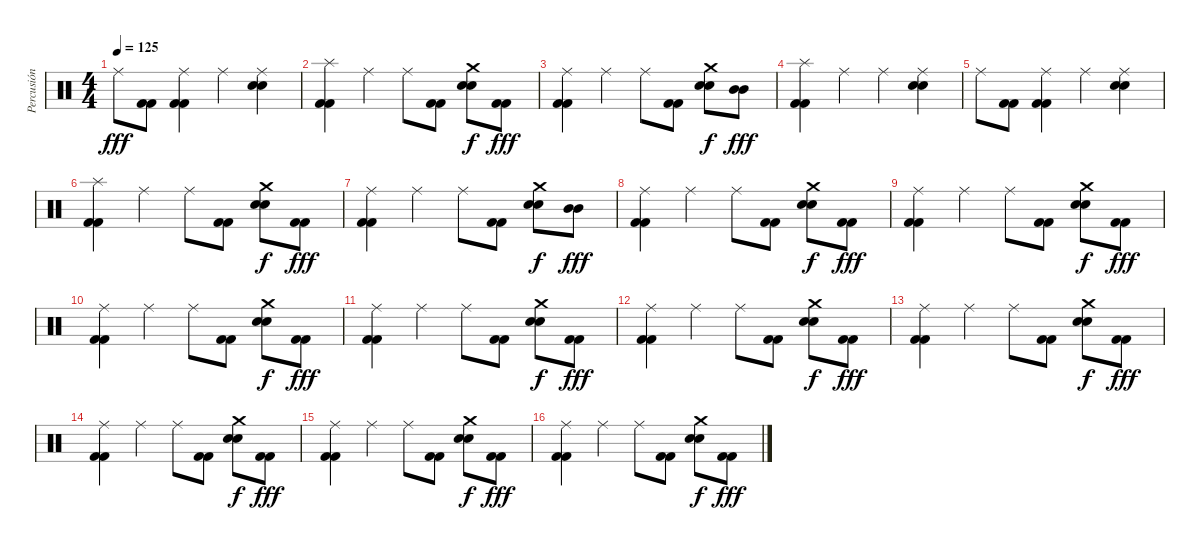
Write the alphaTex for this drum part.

\track ("Percusión" "Percusión") {instrument percussion}
\staff {score}
\articulation defaults
\ts (4 4)
\tempo 125
\clef neutral
\ks c "Ride (middle)".8{dy fff}
("Kick (hit) 2" "Kick (hit) 2").8 ("Ride (middle)" "Kick (hit) 2" "Kick (hit) 2").4 "Ride (middle)".4 ("Ride (middle)" "Electric Snare (hit)" "Electric Snare (hit)").4 |
("Splash (hit)" "Kick (hit) 2" "Kick (hit) 2").4 "Ride (middle)".4 "Ride (middle)".8 ("Kick (hit) 2" "Kick (hit) 2").8 ("Crash medium (hit)" "Electric Snare (hit)" "Electric Snare (hit)").8{dy f} ("Kick (hit) 2" "Kick (hit) 2").8{dy fff} |
("Ride (middle)" "Kick (hit) 2" "Kick (hit) 2").4 "Ride (middle)".4 "Ride (middle)".8 ("Kick (hit) 2" "Kick (hit) 2").8 ("Crash medium (hit)" "Electric Snare (hit)" "Electric Snare (hit)").8{dy f} ("Mid Tom (hit)" "Mid Tom (hit)").8{dy fff} |
("Splash (hit)" "Kick (hit) 2" "Kick (hit) 2").4 "Ride (middle)".4 "Ride (middle)".4 ("Ride (middle)" "Electric Snare (hit)" "Electric Snare (hit)").4 |
"Ride (middle)".8 ("Kick (hit) 2" "Kick (hit) 2").8 ("Ride (middle)" "Kick (hit) 2" "Kick (hit) 2").4 "Ride (middle)".4 ("Ride (middle)" "Electric Snare (hit)" "Electric Snare (hit)").4 |
("Splash (hit)" "Kick (hit) 2" "Kick (hit) 2").4 "Ride (middle)".4 "Ride (middle)".8 ("Kick (hit) 2" "Kick (hit) 2").8 ("Crash medium (hit)" "Electric Snare (hit)" "Electric Snare (hit)").8{dy f} ("Kick (hit) 2" "Kick (hit) 2").8{dy fff} |
("Ride (middle)" "Kick (hit) 2" "Kick (hit) 2").4 "Ride (middle)".4 "Ride (middle)".8 ("Kick (hit) 2" "Kick (hit) 2").8 ("Crash medium (hit)" "Electric Snare (hit)" "Electric Snare (hit)").8{dy f} ("Mid Tom (hit)" "Mid Tom (hit)").8{dy fff} |
("Ride (middle)" "Kick (hit) 2" "Kick (hit) 2").4 "Ride (middle)".4 "Ride (middle)".8 ("Kick (hit) 2" "Kick (hit) 2").8 ("Crash medium (hit)" "Electric Snare (hit)" "Electric Snare (hit)").8{dy f} ("Kick (hit) 2" "Kick (hit) 2").8{dy fff} |
("Ride (middle)" "Kick (hit) 2" "Kick (hit) 2").4 "Ride (middle)".4 "Ride (middle)".8 ("Kick (hit) 2" "Kick (hit) 2").8 ("Crash medium (hit)" "Electric Snare (hit)" "Electric Snare (hit)").8{dy f} ("Kick (hit) 2" "Kick (hit) 2").8{dy fff} |
("Ride (middle)" "Kick (hit) 2" "Kick (hit) 2").4 "Ride (middle)".4 "Ride (middle)".8 ("Kick (hit) 2" "Kick (hit) 2").8 ("Crash medium (hit)" "Electric Snare (hit)" "Electric Snare (hit)").8{dy f} ("Kick (hit) 2" "Kick (hit) 2").8{dy fff} |
("Ride (middle)" "Kick (hit) 2" "Kick (hit) 2").4 "Ride (middle)".4 "Ride (middle)".8 ("Kick (hit) 2" "Kick (hit) 2").8 ("Crash medium (hit)" "Electric Snare (hit)" "Electric Snare (hit)").8{dy f} ("Kick (hit) 2" "Kick (hit) 2").8{dy fff} |
("Ride (middle)" "Kick (hit) 2" "Kick (hit) 2").4 "Ride (middle)".4 "Ride (middle)".8 ("Kick (hit) 2" "Kick (hit) 2").8 ("Crash medium (hit)" "Electric Snare (hit)" "Electric Snare (hit)").8{dy f} ("Kick (hit) 2" "Kick (hit) 2").8{dy fff} |
("Ride (middle)" "Kick (hit) 2" "Kick (hit) 2").4 "Ride (middle)".4 "Ride (middle)".8 ("Kick (hit) 2" "Kick (hit) 2").8 ("Crash medium (hit)" "Electric Snare (hit)" "Electric Snare (hit)").8{dy f} ("Kick (hit) 2" "Kick (hit) 2").8{dy fff} |
("Ride (middle)" "Kick (hit) 2" "Kick (hit) 2").4 "Ride (middle)".4 "Ride (middle)".8 ("Kick (hit) 2" "Kick (hit) 2").8 ("Crash medium (hit)" "Electric Snare (hit)" "Electric Snare (hit)").8{dy f} ("Kick (hit) 2" "Kick (hit) 2").8{dy fff} |
("Ride (middle)" "Kick (hit) 2" "Kick (hit) 2").4 "Ride (middle)".4 "Ride (middle)".8 ("Kick (hit) 2" "Kick (hit) 2").8 ("Crash medium (hit)" "Electric Snare (hit)" "Electric Snare (hit)").8{dy f} ("Kick (hit) 2" "Kick (hit) 2").8{dy fff} |
("Ride (middle)" "Kick (hit) 2" "Kick (hit) 2").4 "Ride (middle)".4 "Ride (middle)".8 ("Kick (hit) 2" "Kick (hit) 2").8 ("Crash medium (hit)" "Electric Snare (hit)" "Electric Snare (hit)").8{dy f} ("Kick (hit) 2" "Kick (hit) 2").8{dy fff}
